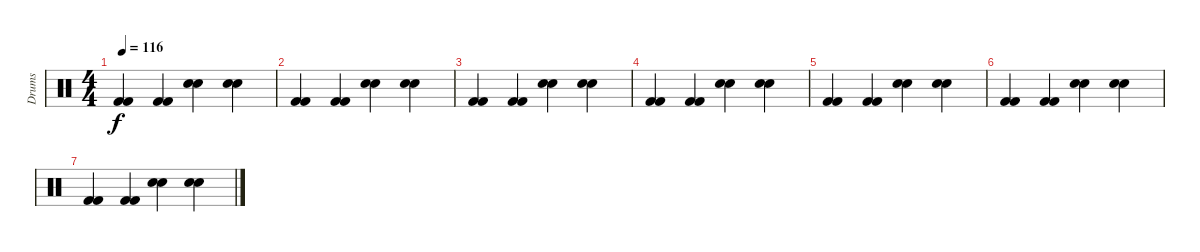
\track ("Drums" "Drums") {instrument percussion}
\staff {score}
\articulation defaults
\ts (4 4)
\tempo 116
\clef neutral
\ks c
("Kick (hit) 2" "Kick (hit) 2").4{dy f} ("Kick (hit) 2" "Kick (hit) 2").4 ("Snare (hit) 2" "Snare (hit) 2").4 ("Snare (hit) 2" "Snare (hit) 2").4 |
("Kick (hit) 2" "Kick (hit) 2").4 ("Kick (hit) 2" "Kick (hit) 2").4 ("Snare (hit) 2" "Snare (hit) 2").4 ("Snare (hit) 2" "Snare (hit) 2").4 |
("Kick (hit) 2" "Kick (hit) 2").4 ("Kick (hit) 2" "Kick (hit) 2").4 ("Snare (hit) 2" "Snare (hit) 2").4 ("Snare (hit) 2" "Snare (hit) 2").4 |
("Kick (hit) 2" "Kick (hit) 2").4 ("Kick (hit) 2" "Kick (hit) 2").4 ("Snare (hit) 2" "Snare (hit) 2").4 ("Snare (hit) 2" "Snare (hit) 2").4 |
("Kick (hit) 2" "Kick (hit) 2").4 ("Kick (hit) 2" "Kick (hit) 2").4 ("Snare (hit) 2" "Snare (hit) 2").4 ("Snare (hit) 2" "Snare (hit) 2").4 |
("Kick (hit) 2" "Kick (hit) 2").4 ("Kick (hit) 2" "Kick (hit) 2").4 ("Snare (hit) 2" "Snare (hit) 2").4 ("Snare (hit) 2" "Snare (hit) 2").4 |
("Kick (hit) 2" "Kick (hit) 2").4 ("Kick (hit) 2" "Kick (hit) 2").4 ("Snare (hit) 2" "Snare (hit) 2").4 ("Snare (hit) 2" "Snare (hit) 2").4
